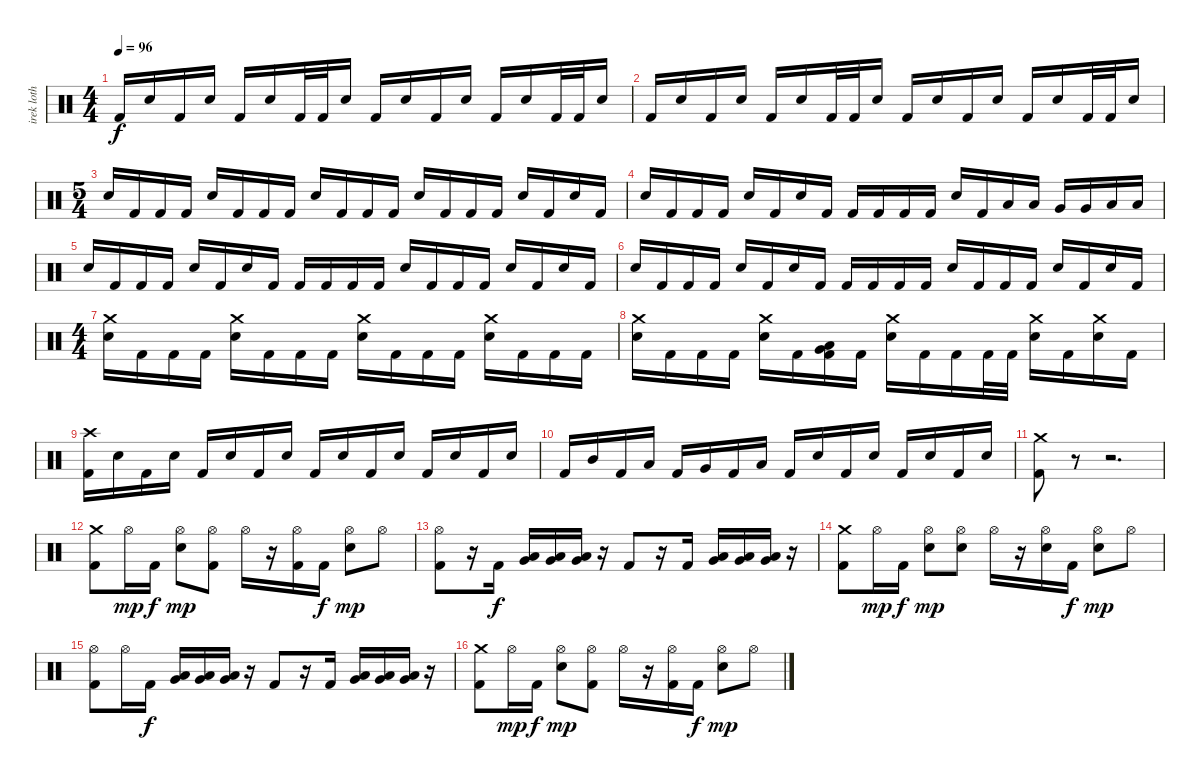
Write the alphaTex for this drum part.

\track ("irek loth" "irek loth") {instrument percussion}
\staff {score}
\articulation defaults
\ts (4 4)
\tempo 96
\clef neutral
\ks c "Kick (hit) 2".16{dy f} "Snare (hit) 2".16 "Kick (hit) 2".16 "Snare (hit) 2".16 "Kick (hit) 2".16 "Snare (hit) 2".16 "Kick (hit) 2".32 "Kick (hit) 2".32 "Snare (hit) 2".16 "Kick (hit) 2".16 "Snare (hit) 2".16 "Kick (hit) 2".16 "Snare (hit) 2".16 "Kick (hit) 2".16 "Snare (hit) 2".16 "Kick (hit) 2".32 "Kick (hit) 2".32 "Snare (hit) 2".16
|
"Kick (hit) 2".16 "Snare (hit) 2".16 "Kick (hit) 2".16 "Snare (hit) 2".16 "Kick (hit) 2".16 "Snare (hit) 2".16 "Kick (hit) 2".32 "Kick (hit) 2".32 "Snare (hit) 2".16 "Kick (hit) 2".16 "Snare (hit) 2".16 "Kick (hit) 2".16 "Snare (hit) 2".16 "Kick (hit) 2".16 "Snare (hit) 2".16 "Kick (hit) 2".32 "Kick (hit) 2".32 "Snare (hit) 2".16 |
\ts (5 4)
"Snare (hit) 2".16 "Kick (hit) 2".16 "Kick (hit) 2".16 "Kick (hit) 2".16 "Snare (hit) 2".16 "Kick (hit) 2".16 "Kick (hit) 2".16 "Kick (hit) 2".16 "Snare (hit) 2".16 "Kick (hit) 2".16 "Kick (hit) 2".16 "Kick (hit) 2".16 "Snare (hit) 2".16 "Kick (hit) 2".16 "Kick (hit) 2".16 "Kick (hit) 2".16 "Snare (hit) 2".16 "Kick (hit) 2".16 "Snare (hit) 2".16 "Kick (hit) 2".16 |
"Snare (hit) 2".16 "Kick (hit) 2".16 "Kick (hit) 2".16 "Kick (hit) 2".16 "Snare (hit) 2".16 "Kick (hit) 2".16 "Snare (hit) 2".16 "Kick (hit) 2".16 "Kick (hit) 2".16 "Kick (hit) 2".16 "Kick (hit) 2".16 "Kick (hit) 2".16 "Snare (hit) 2".16 "Kick (hit) 2".16 "Low Tom (hit)".16 "Low Tom (hit)".16 "Very Low Tom (hit)".16 "Very Low Tom (hit)".16 "Low Floor Tom (hit)".16 "Low Floor Tom (hit)".16 |
"Snare (hit) 2".16 "Kick (hit) 2".16 "Kick (hit) 2".16 "Kick (hit) 2".16 "Snare (hit) 2".16 "Kick (hit) 2".16 "Snare (hit) 2".16 "Kick (hit) 2".16 "Kick (hit) 2".16 "Kick (hit) 2".16 "Kick (hit) 2".16 "Kick (hit) 2".16 "Snare (hit) 2".16 "Kick (hit) 2".16 "Kick (hit) 2".16 "Kick (hit) 2".16 "Snare (hit) 2".16 "Kick (hit) 2".16 "Snare (hit) 2".16 "Kick (hit) 2".16 |
"Snare (hit) 2".16 "Kick (hit) 2".16 "Kick (hit) 2".16 "Kick (hit) 2".16 "Snare (hit) 2".16 "Kick (hit) 2".16 "Snare (hit) 2".16 "Kick (hit) 2".16 "Kick (hit) 2".16 "Kick (hit) 2".16 "Kick (hit) 2".16 "Kick (hit) 2".16 "Snare (hit) 2".16 "Kick (hit) 2".16 "Kick (hit) 2".16 "Kick (hit) 2".16 "Snare (hit) 2".16 "Kick (hit) 2".16 "Snare (hit) 2".16 "Kick (hit) 2".16 |
\ts (4 4)
("Snare (hit) 2" "Crash medium (hit)").16 "Kick (hit) 2".16 "Kick (hit) 2".16 "Kick (hit) 2".16 ("Snare (hit) 2" "Crash medium (hit)").16 "Kick (hit) 2".16 "Kick (hit) 2".16 "Kick (hit) 2".16 ("Snare (hit) 2" "Crash medium (hit)").16 "Kick (hit) 2".16 "Kick (hit) 2".16 "Kick (hit) 2".16 ("Snare (hit) 2" "Crash medium (hit)").16 "Kick (hit) 2".16 "Kick (hit) 2".16 "Kick (hit) 2".16 |
("Snare (hit) 2" "Crash medium (hit)").16 "Kick (hit) 2".16 "Kick (hit) 2".16 "Kick (hit) 2".16 ("Snare (hit) 2" "Crash medium (hit)").16 "Kick (hit) 2".16 ("Very Low Tom (hit)" "Low Floor Tom (hit)" "Kick (hit) 2").16 "Kick (hit) 2".16 ("Snare (hit) 2" "Crash medium (hit)").16 "Kick (hit) 2".16 "Kick (hit) 2".16 "Kick (hit) 2".32 "Kick (hit) 2".32 ("Snare (hit) 2" "Crash medium (hit)").16 "Kick (hit) 2".16 ("Snare (hit) 2" "Crash medium (hit)").16 "Kick (hit) 2".16 |
("Crash high (hit)" "Kick (hit) 2").16 "Snare (hit) 2".16 "Kick (hit) 2".16 "Snare (hit) 2".16 "Kick (hit) 2".16 "Snare (hit) 2".16 "Kick (hit) 2".16 "Snare (hit) 2".16 "Kick (hit) 2".16 "Snare (hit) 2".16 "Kick (hit) 2".16 "Snare (hit) 2".16 "Kick (hit) 2".16 "Snare (hit) 2".16 "Kick (hit) 2".16 "Snare (hit) 2".16 |
"Kick (hit) 2".16 "Mid Tom (hit)".16 "Kick (hit) 2".16 "Low Tom (hit)".16 "Kick (hit) 2".16 "Very Low Tom (hit)".16 "Kick (hit) 2".16 "Low Floor Tom (hit)".16 "Kick (hit) 2".16 "Snare (hit) 2".16 "Kick (hit) 2".16 "Snare (hit) 2".16 "Kick (hit) 2".16 "Snare (hit) 2".16 "Kick (hit) 2".16 "Snare (hit) 2".16 |
("Crash medium (hit)" "Kick (hit) 2").8 r.8 r.2{d} |
("Crash medium (hit)" "Kick (hit) 2").8 "Hi-Hat (open)".16{dy mp} "Kick (hit) 2".16{dy f} ("Snare (hit) 2" "Hi-Hat (open)").8{dy mp} ("Hi-Hat (open)" "Kick (hit) 2").8 "Hi-Hat (open)".16 r.16 ("Hi-Hat (open)" "Kick (hit) 2").16 "Kick (hit) 2".16{dy f} ("Snare (hit) 2" "Hi-Hat (open)").8{dy mp} "Hi-Hat (open)".8 |
("Hi-Hat (open)" "Kick (hit) 2").8 r.16 "Kick (hit) 2".16{dy f} ("Low Tom (hit)" "Very Low Tom (hit)").16 ("Low Tom (hit)" "Very Low Tom (hit)").16 ("Very Low Tom (hit)" "Low Floor Tom (hit)").16 r.16 "Kick (hit) 2".8 r.16 "Kick (hit) 2".16 ("Low Tom (hit)" "Very Low Tom (hit)").16 ("Low Tom (hit)" "Very Low Tom (hit)").16 ("Very Low Tom (hit)" "Low Floor Tom (hit)").16 r.16 |
("Crash medium (hit)" "Kick (hit) 2").8 "Hi-Hat (open)".16{dy mp} "Kick (hit) 2".16{dy f} ("Snare (hit) 2" "Hi-Hat (open)").8{dy mp} ("Snare (hit) 2" "Hi-Hat (open)").8 "Hi-Hat (open)".16 r.16 ("Snare (hit) 2" "Hi-Hat (open)").16 "Kick (hit) 2".16{dy f} ("Snare (hit) 2" "Hi-Hat (open)").8{dy mp} "Hi-Hat (open)".8 |
("Hi-Hat (open)" "Kick (hit) 2").8 "Hi-Hat (open)".16 "Kick (hit) 2".16{dy f} ("Low Tom (hit)" "Very Low Tom (hit)").16 ("Low Tom (hit)" "Very Low Tom (hit)").16 ("Very Low Tom (hit)" "Low Floor Tom (hit)").16 r.16 "Kick (hit) 2".8 r.16 "Kick (hit) 2".16 ("Low Tom (hit)" "Very Low Tom (hit)").16 ("Low Tom (hit)" "Very Low Tom (hit)").16 ("Very Low Tom (hit)" "Low Floor Tom (hit)").16 r.16 |
("Crash medium (hit)" "Kick (hit) 2").8 "Hi-Hat (open)".16{dy mp} "Kick (hit) 2".16{dy f} ("Snare (hit) 2" "Hi-Hat (open)").8{dy mp} ("Hi-Hat (open)" "Kick (hit) 2").8 "Hi-Hat (open)".16 r.16 ("Hi-Hat (open)" "Kick (hit) 2").16 "Kick (hit) 2".16{dy f} ("Snare (hit) 2" "Hi-Hat (open)").8{dy mp} "Hi-Hat (open)".8
